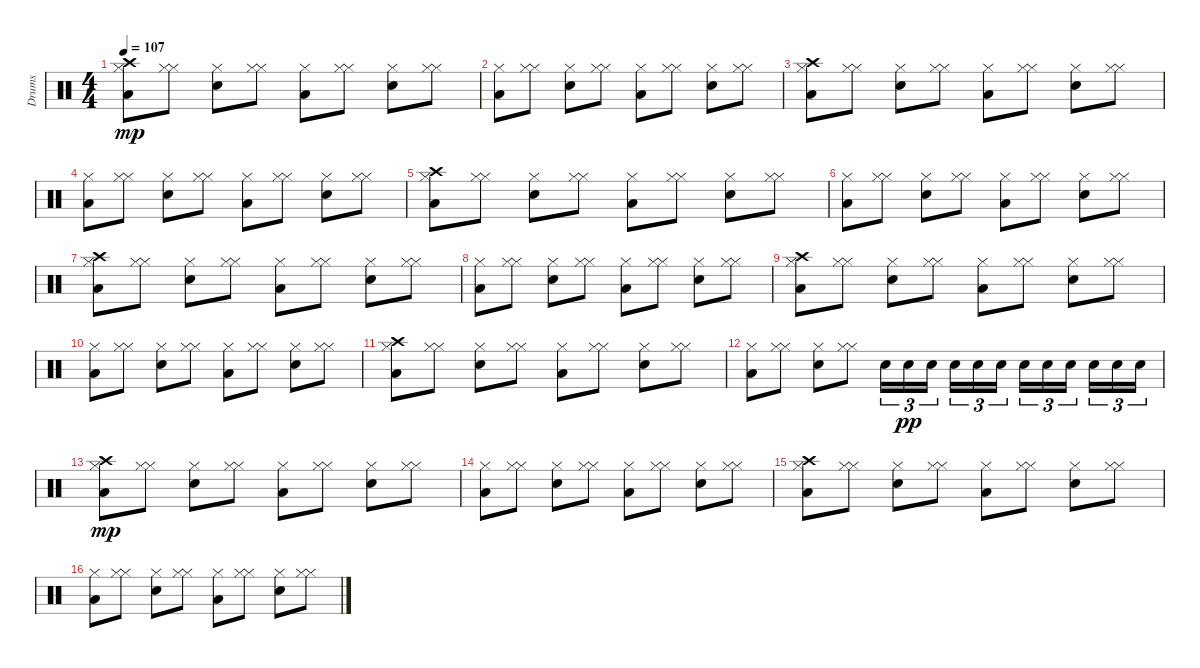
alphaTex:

\track ("Drums" "Drums") {instrument percussion}
\staff {score}
\articulation defaults
\ts (4 4)
\tempo 107
\clef neutral
\ks c
("Hi-Hat (closed)" "Crash high (hit)" "Low Tom (hit)").8{dy mp} ("Hi-Hat (closed)" "Hi-Hat (closed)").8 ("Hi-Hat (closed)" "Snare (hit) 2").8 ("Hi-Hat (closed)" "Hi-Hat (closed)").8 ("Hi-Hat (closed)" "Low Tom (hit)").8 ("Hi-Hat (closed)" "Hi-Hat (closed)").8 ("Hi-Hat (closed)" "Snare (hit) 2").8 ("Hi-Hat (closed)" "Hi-Hat (closed)").8 |
("Hi-Hat (closed)" "Low Tom (hit)").8 ("Hi-Hat (closed)" "Hi-Hat (closed)").8 ("Hi-Hat (closed)" "Snare (hit) 2").8 ("Hi-Hat (closed)" "Hi-Hat (closed)").8 ("Hi-Hat (closed)" "Low Tom (hit)").8 ("Hi-Hat (closed)" "Hi-Hat (closed)").8 ("Hi-Hat (closed)" "Snare (hit) 2").8 ("Hi-Hat (closed)" "Hi-Hat (closed)").8 |
("Hi-Hat (closed)" "Crash high (hit)" "Low Tom (hit)").8 ("Hi-Hat (closed)" "Hi-Hat (closed)").8 ("Hi-Hat (closed)" "Snare (hit) 2").8 ("Hi-Hat (closed)" "Hi-Hat (closed)").8 ("Hi-Hat (closed)" "Low Tom (hit)").8 ("Hi-Hat (closed)" "Hi-Hat (closed)").8 ("Hi-Hat (closed)" "Snare (hit) 2").8 ("Hi-Hat (closed)" "Hi-Hat (closed)").8 |
("Hi-Hat (closed)" "Low Tom (hit)").8 ("Hi-Hat (closed)" "Hi-Hat (closed)").8 ("Hi-Hat (closed)" "Snare (hit) 2").8 ("Hi-Hat (closed)" "Hi-Hat (closed)").8 ("Hi-Hat (closed)" "Low Tom (hit)").8 ("Hi-Hat (closed)" "Hi-Hat (closed)").8 ("Hi-Hat (closed)" "Snare (hit) 2").8 ("Hi-Hat (closed)" "Hi-Hat (closed)").8 |
("Hi-Hat (closed)" "Crash high (hit)" "Low Tom (hit)").8 ("Hi-Hat (closed)" "Hi-Hat (closed)").8 ("Hi-Hat (closed)" "Snare (hit) 2").8 ("Hi-Hat (closed)" "Hi-Hat (closed)").8 ("Hi-Hat (closed)" "Low Tom (hit)").8 ("Hi-Hat (closed)" "Hi-Hat (closed)").8 ("Hi-Hat (closed)" "Snare (hit) 2").8 ("Hi-Hat (closed)" "Hi-Hat (closed)").8 |
("Hi-Hat (closed)" "Low Tom (hit)").8 ("Hi-Hat (closed)" "Hi-Hat (closed)").8 ("Hi-Hat (closed)" "Snare (hit) 2").8 ("Hi-Hat (closed)" "Hi-Hat (closed)").8 ("Hi-Hat (closed)" "Low Tom (hit)").8 ("Hi-Hat (closed)" "Hi-Hat (closed)").8 ("Hi-Hat (closed)" "Snare (hit) 2").8 ("Hi-Hat (closed)" "Hi-Hat (closed)").8 |
("Hi-Hat (closed)" "Crash high (hit)" "Low Tom (hit)").8 ("Hi-Hat (closed)" "Hi-Hat (closed)").8 ("Hi-Hat (closed)" "Snare (hit) 2").8 ("Hi-Hat (closed)" "Hi-Hat (closed)").8 ("Hi-Hat (closed)" "Low Tom (hit)").8 ("Hi-Hat (closed)" "Hi-Hat (closed)").8 ("Hi-Hat (closed)" "Snare (hit) 2").8 ("Hi-Hat (closed)" "Hi-Hat (closed)").8 |
("Hi-Hat (closed)" "Low Tom (hit)").8 ("Hi-Hat (closed)" "Hi-Hat (closed)").8 ("Hi-Hat (closed)" "Snare (hit) 2").8 ("Hi-Hat (closed)" "Hi-Hat (closed)").8 ("Hi-Hat (closed)" "Low Tom (hit)").8 ("Hi-Hat (closed)" "Hi-Hat (closed)").8 ("Hi-Hat (closed)" "Snare (hit) 2").8 ("Hi-Hat (closed)" "Hi-Hat (closed)").8 |
("Hi-Hat (closed)" "Crash high (hit)" "Low Tom (hit)").8 ("Hi-Hat (closed)" "Hi-Hat (closed)").8 ("Hi-Hat (closed)" "Snare (hit) 2").8 ("Hi-Hat (closed)" "Hi-Hat (closed)").8 ("Hi-Hat (closed)" "Low Tom (hit)").8 ("Hi-Hat (closed)" "Hi-Hat (closed)").8 ("Hi-Hat (closed)" "Snare (hit) 2").8 ("Hi-Hat (closed)" "Hi-Hat (closed)").8 |
("Hi-Hat (closed)" "Low Tom (hit)").8 ("Hi-Hat (closed)" "Hi-Hat (closed)").8 ("Hi-Hat (closed)" "Snare (hit) 2").8 ("Hi-Hat (closed)" "Hi-Hat (closed)").8 ("Hi-Hat (closed)" "Low Tom (hit)").8 ("Hi-Hat (closed)" "Hi-Hat (closed)").8 ("Hi-Hat (closed)" "Snare (hit) 2").8 ("Hi-Hat (closed)" "Hi-Hat (closed)").8 |
("Hi-Hat (closed)" "Crash high (hit)" "Low Tom (hit)").8 ("Hi-Hat (closed)" "Hi-Hat (closed)").8 ("Hi-Hat (closed)" "Snare (hit) 2").8 ("Hi-Hat (closed)" "Hi-Hat (closed)").8 ("Hi-Hat (closed)" "Low Tom (hit)").8 ("Hi-Hat (closed)" "Hi-Hat (closed)").8 ("Hi-Hat (closed)" "Snare (hit) 2").8 ("Hi-Hat (closed)" "Hi-Hat (closed)").8 |
("Hi-Hat (closed)" "Low Tom (hit)").8 ("Hi-Hat (closed)" "Hi-Hat (closed)").8 ("Hi-Hat (closed)" "Snare (hit) 2").8 ("Hi-Hat (closed)" "Hi-Hat (closed)").8 "Snare (hit) 2".16{tu (3 2)} "Snare (hit) 2".16{tu (3 2) dy pp} "Snare (hit) 2".16{tu (3 2) beam splitsecondary} "Snare (hit) 2".16{tu (3 2)} "Snare (hit) 2".16{tu (3 2)} "Snare (hit) 2".16{tu (3 2)} "Snare (hit) 2".16{tu (3 2)} "Snare (hit) 2".16{tu (3 2)} "Snare (hit) 2".16{tu (3 2) beam splitsecondary} "Snare (hit) 2".16{tu (3 2)} "Snare (hit) 2".16{tu (3 2)} "Snare (hit) 2".16{tu (3 2)} |
("Hi-Hat (closed)" "Crash high (hit)" "Low Tom (hit)").8{dy mp} ("Hi-Hat (closed)" "Hi-Hat (closed)").8 ("Hi-Hat (closed)" "Snare (hit) 2").8 ("Hi-Hat (closed)" "Hi-Hat (closed)").8 ("Hi-Hat (closed)" "Low Tom (hit)").8 ("Hi-Hat (closed)" "Hi-Hat (closed)").8 ("Hi-Hat (closed)" "Snare (hit) 2").8 ("Hi-Hat (closed)" "Hi-Hat (closed)").8 |
("Hi-Hat (closed)" "Low Tom (hit)").8 ("Hi-Hat (closed)" "Hi-Hat (closed)").8 ("Hi-Hat (closed)" "Snare (hit) 2").8 ("Hi-Hat (closed)" "Hi-Hat (closed)").8 ("Hi-Hat (closed)" "Low Tom (hit)").8 ("Hi-Hat (closed)" "Hi-Hat (closed)").8 ("Hi-Hat (closed)" "Snare (hit) 2").8 ("Hi-Hat (closed)" "Hi-Hat (closed)").8 |
("Hi-Hat (closed)" "Crash high (hit)" "Low Tom (hit)").8 ("Hi-Hat (closed)" "Hi-Hat (closed)").8 ("Hi-Hat (closed)" "Snare (hit) 2").8 ("Hi-Hat (closed)" "Hi-Hat (closed)").8 ("Hi-Hat (closed)" "Low Tom (hit)").8 ("Hi-Hat (closed)" "Hi-Hat (closed)").8 ("Hi-Hat (closed)" "Snare (hit) 2").8 ("Hi-Hat (closed)" "Hi-Hat (closed)").8 |
("Hi-Hat (closed)" "Low Tom (hit)").8 ("Hi-Hat (closed)" "Hi-Hat (closed)").8 ("Hi-Hat (closed)" "Snare (hit) 2").8 ("Hi-Hat (closed)" "Hi-Hat (closed)").8 ("Hi-Hat (closed)" "Low Tom (hit)").8 ("Hi-Hat (closed)" "Hi-Hat (closed)").8 ("Hi-Hat (closed)" "Snare (hit) 2").8 ("Hi-Hat (closed)" "Hi-Hat (closed)").8
